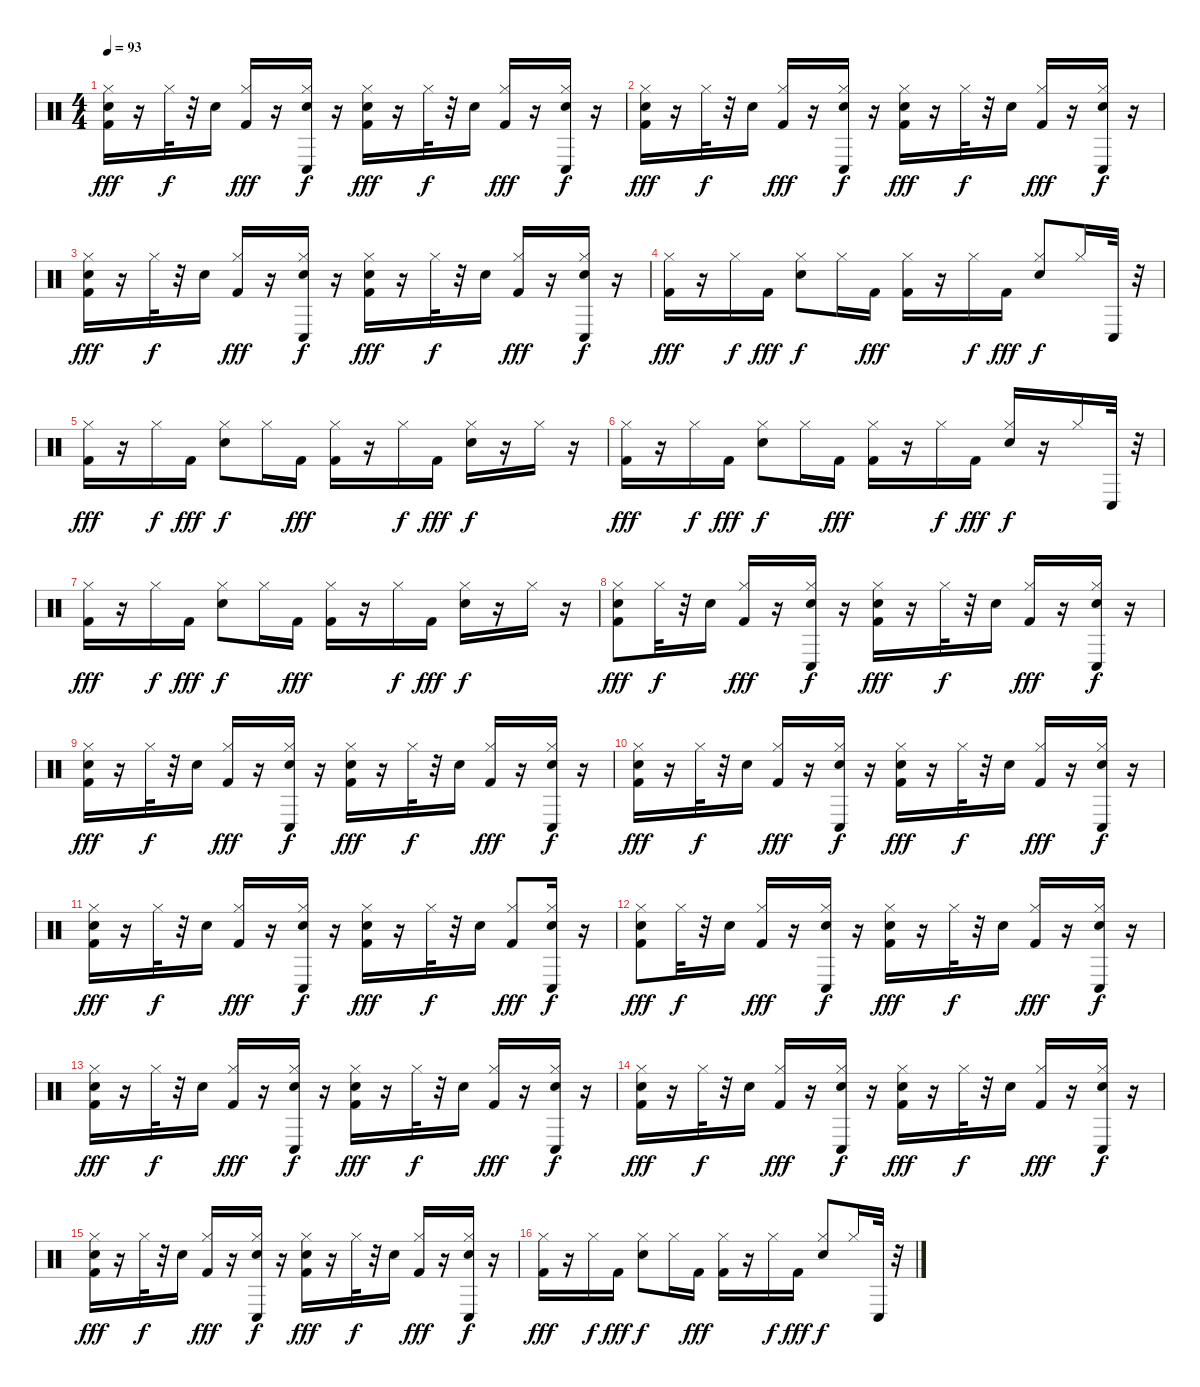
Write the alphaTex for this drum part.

\track "" {instrument percussion}
\staff {score}
\articulation defaults
\ts (4 4)
\tempo 93
\clef neutral
\ks c
("Kick (hit) 2" "Snare (hit) 2" "Hi-Hat (closed)").16{dy fff} r.16 "Hi-Hat (closed)".32{dy f} r.32 "Snare (hit) 2".16 ("Kick (hit) 2" "Hi-Hat (closed)").16{dy fff} r.16 ("Snare (hit) 2" "Hi-Hat (closed)" "Conga low (hit)").16{dy f} r.16 ("Kick (hit) 2" "Snare (hit) 2" "Hi-Hat (closed)").16{dy fff} r.16 "Hi-Hat (closed)".32{dy f} r.32 "Snare (hit) 2".16 ("Kick (hit) 2" "Hi-Hat (closed)").16{dy fff} r.16 ("Conga low (hit)" "Snare (hit) 2" "Hi-Hat (closed)").16{dy f} r.16 |
("Kick (hit) 2" "Snare (hit) 2" "Hi-Hat (closed)").16{dy fff} r.16 "Hi-Hat (closed)".32{dy f} r.32 "Snare (hit) 2".16 ("Kick (hit) 2" "Hi-Hat (closed)").16{dy fff} r.16 ("Snare (hit) 2" "Hi-Hat (closed)" "Conga low (hit)").16{dy f} r.16 ("Hi-Hat (closed)" "Kick (hit) 2" "Snare (hit) 2").16{dy fff} r.16 "Hi-Hat (closed)".32{dy f} r.32 "Snare (hit) 2".16 ("Hi-Hat (closed)" "Kick (hit) 2").16{dy fff} r.16 ("Hi-Hat (closed)" "Snare (hit) 2" "Conga low (hit)").16{dy f} r.16 |
("Kick (hit) 2" "Snare (hit) 2" "Hi-Hat (closed)").16{dy fff} r.16 "Hi-Hat (closed)".32{dy f} r.32 "Snare (hit) 2".16 ("Hi-Hat (closed)" "Kick (hit) 2").16{dy fff} r.16 ("Hi-Hat (closed)" "Snare (hit) 2" "Conga low (hit)").16{dy f} r.16 ("Kick (hit) 2" "Snare (hit) 2" "Hi-Hat (closed)").16{dy fff} r.16 "Hi-Hat (closed)".32{dy f} r.32 "Snare (hit) 2".16 ("Hi-Hat (closed)" "Kick (hit) 2").16{dy fff} r.16 ("Hi-Hat (closed)" "Conga low (hit)" "Snare (hit) 2").16{dy f} r.16 |
("Kick (hit) 2" "Hi-Hat (closed)").16{dy fff} r.16 "Hi-Hat (closed)".16{dy f} "Kick (hit) 2".16{dy fff} ("Snare (hit) 2" "Hi-Hat (closed)").8{dy f} "Hi-Hat (closed)".16 "Kick (hit) 2".16{dy fff} ("Kick (hit) 2" "Hi-Hat (closed)").16 r.16 "Hi-Hat (closed)".16{dy f} "Kick (hit) 2".16{dy fff} ("Snare (hit) 2" "Hi-Hat (closed)").8{dy f} "Hi-Hat (closed)".16 "Conga low (hit)".32 r.32 |
("Kick (hit) 2" "Hi-Hat (closed)").16{dy fff} r.16 "Hi-Hat (closed)".16{dy f} "Kick (hit) 2".16{dy fff} ("Snare (hit) 2" "Hi-Hat (closed)").8{dy f} "Hi-Hat (closed)".16 "Kick (hit) 2".16{dy fff} ("Kick (hit) 2" "Hi-Hat (closed)").16 r.16 "Hi-Hat (closed)".16{dy f} "Kick (hit) 2".16{dy fff} ("Snare (hit) 2" "Hi-Hat (closed)").16{dy f} r.16 "Hi-Hat (closed)".16 r.16 |
("Kick (hit) 2" "Hi-Hat (closed)").16{dy fff} r.16 "Hi-Hat (closed)".16{dy f} "Kick (hit) 2".16{dy fff} ("Snare (hit) 2" "Hi-Hat (closed)").8{dy f} "Hi-Hat (closed)".16 "Kick (hit) 2".16{dy fff} ("Kick (hit) 2" "Hi-Hat (closed)").16 r.16 "Hi-Hat (closed)".16{dy f} "Kick (hit) 2".16{dy fff} ("Snare (hit) 2" "Hi-Hat (closed)").16{dy f} r.16 "Hi-Hat (closed)".16 "Conga low (hit)".32 r.32 |
("Kick (hit) 2" "Hi-Hat (closed)").16{dy fff} r.16 "Hi-Hat (closed)".16{dy f} "Kick (hit) 2".16{dy fff} ("Snare (hit) 2" "Hi-Hat (closed)").8{dy f} "Hi-Hat (closed)".16 "Kick (hit) 2".16{dy fff} ("Kick (hit) 2" "Hi-Hat (closed)").16 r.16 "Hi-Hat (closed)".16{dy f} "Kick (hit) 2".16{dy fff} ("Snare (hit) 2" "Hi-Hat (closed)").16{dy f} r.16 "Hi-Hat (closed)".16 r.16 |
("Kick (hit) 2" "Snare (hit) 2" "Hi-Hat (closed)").8{dy fff} "Hi-Hat (closed)".32{dy f} r.32 "Snare (hit) 2".16 ("Kick (hit) 2" "Hi-Hat (closed)").16{dy fff} r.16 ("Snare (hit) 2" "Hi-Hat (closed)" "Conga low (hit)").16{dy f} r.16 ("Kick (hit) 2" "Snare (hit) 2" "Hi-Hat (closed)").16{dy fff} r.16 "Hi-Hat (closed)".32{dy f} r.32 "Snare (hit) 2".16 ("Kick (hit) 2" "Hi-Hat (closed)").16{dy fff} r.16 ("Hi-Hat (closed)" "Snare (hit) 2" "Conga low (hit)").16{dy f} r.16 |
("Kick (hit) 2" "Snare (hit) 2" "Hi-Hat (closed)").16{dy fff} r.16 "Hi-Hat (closed)".32{dy f} r.32 "Snare (hit) 2".16 ("Kick (hit) 2" "Hi-Hat (closed)").16{dy fff} r.16 ("Snare (hit) 2" "Hi-Hat (closed)" "Conga low (hit)").16{dy f} r.16 ("Kick (hit) 2" "Snare (hit) 2" "Hi-Hat (closed)").16{dy fff} r.16 "Hi-Hat (closed)".32{dy f} r.32 "Snare (hit) 2".16 ("Kick (hit) 2" "Hi-Hat (closed)").16{dy fff} r.16 ("Conga low (hit)" "Snare (hit) 2" "Hi-Hat (closed)").16{dy f} r.16 |
("Kick (hit) 2" "Snare (hit) 2" "Hi-Hat (closed)").16{dy fff} r.16 "Hi-Hat (closed)".32{dy f} r.32 "Snare (hit) 2".16 ("Kick (hit) 2" "Hi-Hat (closed)").16{dy fff} r.16 ("Snare (hit) 2" "Hi-Hat (closed)" "Conga low (hit)").16{dy f} r.16 ("Hi-Hat (closed)" "Kick (hit) 2" "Snare (hit) 2").16{dy fff} r.16 "Hi-Hat (closed)".32{dy f} r.32 "Snare (hit) 2".16 ("Hi-Hat (closed)" "Kick (hit) 2").16{dy fff} r.16 ("Hi-Hat (closed)" "Snare (hit) 2" "Conga low (hit)").16{dy f} r.16 |
("Kick (hit) 2" "Snare (hit) 2" "Hi-Hat (closed)").16{dy fff} r.16 "Hi-Hat (closed)".32{dy f} r.32 "Snare (hit) 2".16 ("Hi-Hat (closed)" "Kick (hit) 2").16{dy fff} r.16 ("Hi-Hat (closed)" "Snare (hit) 2" "Conga low (hit)").16{dy f} r.16 ("Kick (hit) 2" "Snare (hit) 2" "Hi-Hat (closed)").16{dy fff} r.16 "Hi-Hat (closed)".32{dy f} r.32 "Snare (hit) 2".16 ("Hi-Hat (closed)" "Kick (hit) 2").8{dy fff} ("Hi-Hat (closed)" "Conga low (hit)" "Snare (hit) 2").16{dy f} r.16 |
("Kick (hit) 2" "Snare (hit) 2" "Hi-Hat (closed)").8{dy fff} "Hi-Hat (closed)".32{dy f} r.32 "Snare (hit) 2".16 ("Kick (hit) 2" "Hi-Hat (closed)").16{dy fff} r.16 ("Snare (hit) 2" "Hi-Hat (closed)" "Conga low (hit)").16{dy f} r.16 ("Kick (hit) 2" "Snare (hit) 2" "Hi-Hat (closed)").16{dy fff} r.16 "Hi-Hat (closed)".32{dy f} r.32 "Snare (hit) 2".16 ("Kick (hit) 2" "Hi-Hat (closed)").16{dy fff} r.16 ("Hi-Hat (closed)" "Snare (hit) 2" "Conga low (hit)").16{dy f} r.16 |
("Kick (hit) 2" "Snare (hit) 2" "Hi-Hat (closed)").16{dy fff} r.16 "Hi-Hat (closed)".32{dy f} r.32 "Snare (hit) 2".16 ("Kick (hit) 2" "Hi-Hat (closed)").16{dy fff} r.16 ("Snare (hit) 2" "Hi-Hat (closed)" "Conga low (hit)").16{dy f} r.16 ("Kick (hit) 2" "Snare (hit) 2" "Hi-Hat (closed)").16{dy fff} r.16 "Hi-Hat (closed)".32{dy f} r.32 "Snare (hit) 2".16 ("Kick (hit) 2" "Hi-Hat (closed)").16{dy fff} r.16 ("Conga low (hit)" "Snare (hit) 2" "Hi-Hat (closed)").16{dy f} r.16 |
("Kick (hit) 2" "Snare (hit) 2" "Hi-Hat (closed)").16{dy fff} r.16 "Hi-Hat (closed)".32{dy f} r.32 "Snare (hit) 2".16 ("Kick (hit) 2" "Hi-Hat (closed)").16{dy fff} r.16 ("Snare (hit) 2" "Hi-Hat (closed)" "Conga low (hit)").16{dy f} r.16 ("Hi-Hat (closed)" "Kick (hit) 2" "Snare (hit) 2").16{dy fff} r.16 "Hi-Hat (closed)".32{dy f} r.32 "Snare (hit) 2".16 ("Hi-Hat (closed)" "Kick (hit) 2").16{dy fff} r.16 ("Hi-Hat (closed)" "Snare (hit) 2" "Conga low (hit)").16{dy f} r.16 |
("Kick (hit) 2" "Snare (hit) 2" "Hi-Hat (closed)").16{dy fff} r.16 "Hi-Hat (closed)".32{dy f} r.32 "Snare (hit) 2".16 ("Hi-Hat (closed)" "Kick (hit) 2").16{dy fff} r.16 ("Hi-Hat (closed)" "Snare (hit) 2" "Conga low (hit)").16{dy f} r.16 ("Kick (hit) 2" "Snare (hit) 2" "Hi-Hat (closed)").16{dy fff} r.16 "Hi-Hat (closed)".32{dy f} r.32 "Snare (hit) 2".16 ("Hi-Hat (closed)" "Kick (hit) 2").16{dy fff} r.16 ("Hi-Hat (closed)" "Conga low (hit)" "Snare (hit) 2").16{dy f} r.16 |
("Kick (hit) 2" "Hi-Hat (closed)").16{dy fff} r.16 "Hi-Hat (closed)".16{dy f} "Kick (hit) 2".16{dy fff} ("Snare (hit) 2" "Hi-Hat (closed)").8{dy f} "Hi-Hat (closed)".16 "Kick (hit) 2".16{dy fff} ("Kick (hit) 2" "Hi-Hat (closed)").16 r.16 "Hi-Hat (closed)".16{dy f} "Kick (hit) 2".16{dy fff} ("Snare (hit) 2" "Hi-Hat (closed)").8{dy f} "Hi-Hat (closed)".16 "Conga low (hit)".32 r.32
